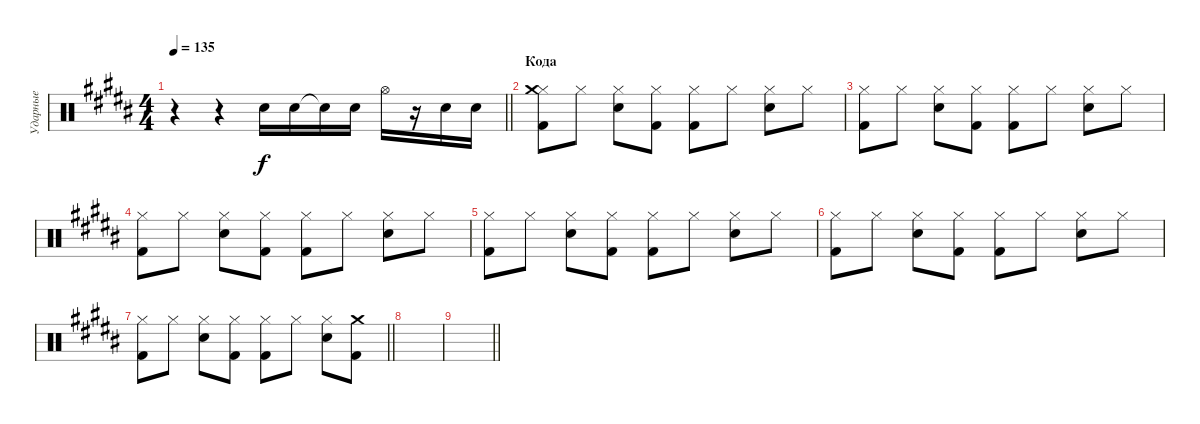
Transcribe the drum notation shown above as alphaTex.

\track ("Ударные" "Ударные") {instrument percussion}
\staff {score}
\articulation defaults
\ts (4 4)
\tempo 135
\clef neutral
\barLineRight lightlight
\ks g#minor
r.4{dy f} r.4 "Electric Snare (hit)".16 "Electric Snare (hit)".16 "Electric Snare (hit)"{t}.16 "Electric Snare (hit)".16 "Hi-Hat (open)".16 r.16 "Electric Snare (hit)".16 "Electric Snare (hit)".16 |
\section ("" "Кода")
("Hi-Hat (closed)" "Crash medium (hit)" "Kick (hit) 2").8 "Hi-Hat (closed)".8 ("Hi-Hat (closed)" "Electric Snare (hit)").8 ("Hi-Hat (closed)" "Kick (hit) 2").8 ("Hi-Hat (closed)" "Kick (hit) 2").8 "Hi-Hat (closed)".8 ("Hi-Hat (closed)" "Electric Snare (hit)").8 "Hi-Hat (closed)".8 |
("Hi-Hat (closed)" "Kick (hit) 2").8 "Hi-Hat (closed)".8 ("Hi-Hat (closed)" "Electric Snare (hit)").8 ("Hi-Hat (closed)" "Kick (hit) 2").8 ("Hi-Hat (closed)" "Kick (hit) 2").8 "Hi-Hat (closed)".8 ("Hi-Hat (closed)" "Electric Snare (hit)").8 "Hi-Hat (closed)".8 |
("Hi-Hat (closed)" "Kick (hit) 2").8 "Hi-Hat (closed)".8 ("Hi-Hat (closed)" "Electric Snare (hit)").8 ("Hi-Hat (closed)" "Kick (hit) 2").8 ("Hi-Hat (closed)" "Kick (hit) 2").8 "Hi-Hat (closed)".8 ("Hi-Hat (closed)" "Electric Snare (hit)").8 "Hi-Hat (closed)".8 |
("Hi-Hat (closed)" "Kick (hit) 2").8 "Hi-Hat (closed)".8 ("Hi-Hat (closed)" "Electric Snare (hit)").8 ("Hi-Hat (closed)" "Kick (hit) 2").8 ("Hi-Hat (closed)" "Kick (hit) 2").8 "Hi-Hat (closed)".8 ("Hi-Hat (closed)" "Electric Snare (hit)").8 "Hi-Hat (closed)".8 |
("Hi-Hat (closed)" "Kick (hit) 2").8 "Hi-Hat (closed)".8 ("Hi-Hat (closed)" "Electric Snare (hit)").8 ("Hi-Hat (closed)" "Kick (hit) 2").8 ("Hi-Hat (closed)" "Kick (hit) 2").8 "Hi-Hat (closed)".8 ("Hi-Hat (closed)" "Electric Snare (hit)").8 "Hi-Hat (closed)".8 |
\barLineRight lightlight
("Hi-Hat (closed)" "Kick (hit) 2").8 "Hi-Hat (closed)".8 ("Hi-Hat (closed)" "Electric Snare (hit)").8 ("Hi-Hat (closed)" "Kick (hit) 2").8 ("Hi-Hat (closed)" "Kick (hit) 2").8 "Hi-Hat (closed)".8 ("Hi-Hat (closed)" "Electric Snare (hit)").8 ("Crash medium (hit)" "Kick (hit) 2").8 |
\section ("" "")
|
\barLineRight lightlight
